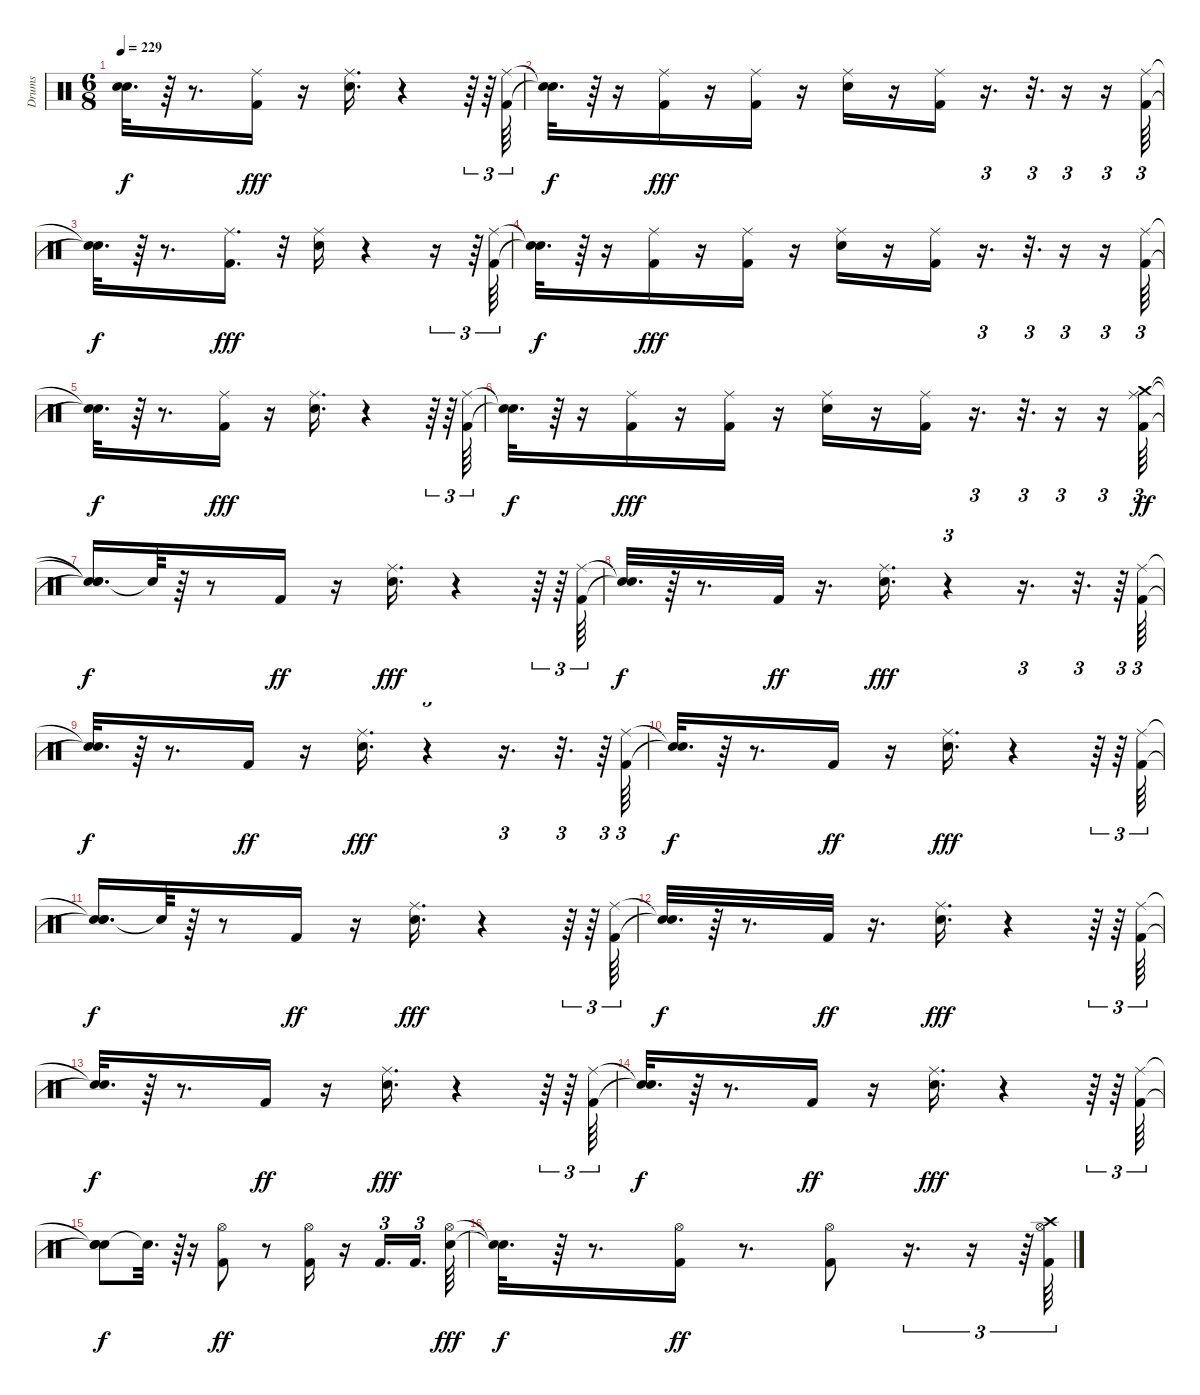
\track ("Drums" "Drums") {instrument percussion}
\staff {score}
\articulation defaults
\ts (6 8)
\tempo 229
\clef neutral
\ks c
("Snare (hit)"{t} "Snare (hit)"{t}).32{d dy f} r.64 r.8{d} ("Kick (hit) 2" "Ride (middle)").16{dy fff} r.16 ("Snare (hit) 2" "Ride (middle)").16{d} r.4 r.64{tu (3 2)} r.64{tu (3 2)} ("Kick (hit) 2" "Ride (middle)").64{tu (3 2)} |
("Snare (hit)"{t} "Snare (hit)"{t}).32{d dy f} r.64 r.16 ("Kick (hit) 2" "Ride (middle)").16{dy fff} r.16 ("Kick (hit) 2" "Ride (middle)").16 r.16 ("Snare (hit) 2" "Ride (middle)").16 r.16 ("Kick (hit) 2" "Ride (middle)").16 r.16{d tu (3 2)} r.32{d tu (3 2)} r.16{tu (3 2)} r.16{tu (3 2)} ("Kick (hit) 2" "Ride (middle)").64{tu (3 2)} |
("Snare (hit)"{t} "Snare (hit)"{t}).32{d dy f} r.64 r.8{d} ("Kick (hit) 2" "Ride (middle)").16{d dy fff} r.32 ("Snare (hit) 2" "Ride (middle)").16 r.4 r.16{tu (3 2)} r.64{tu (3 2)} ("Kick (hit) 2" "Ride (middle)").64{tu (3 2)} |
("Snare (hit)"{t} "Snare (hit)"{t}).32{d dy f} r.64 r.16 ("Kick (hit) 2" "Ride (middle)").16{dy fff} r.16 ("Kick (hit) 2" "Ride (middle)").16 r.16 ("Snare (hit) 2" "Ride (middle)").16 r.16 ("Kick (hit) 2" "Ride (middle)").16 r.16{d tu (3 2)} r.32{d tu (3 2)} r.16{tu (3 2)} r.16{tu (3 2)} ("Kick (hit) 2" "Ride (middle)").64{tu (3 2)} |
("Snare (hit)"{t} "Snare (hit)"{t}).32{d dy f} r.64 r.8{d} ("Kick (hit) 2" "Ride (middle)").16{dy fff} r.16 ("Snare (hit) 2" "Ride (middle)").16{d} r.4 r.64{tu (3 2)} r.64{tu (3 2)} ("Kick (hit) 2" "Ride (middle)").64{tu (3 2)} |
("Snare (hit)"{t} "Snare (hit)"{t}).32{d dy f} r.64 r.16 ("Kick (hit) 2" "Ride (middle)").16{dy fff} r.16 ("Kick (hit) 2" "Ride (middle)").16 r.16 ("Snare (hit) 2" "Ride (middle)").16 r.16 ("Kick (hit) 2" "Ride (middle)").16 r.16{d tu (3 2)} r.32{d tu (3 2)} r.16{tu (3 2)} r.16{tu (3 2)} ("Kick (hit) 2" "Ride (middle)" "Crash medium (hit)").64{tu (3 2) dy ff} |
("Snare (hit)"{t} "Snare (hit)"{t} "Snare (hit)"{t}).16{d dy f} "Snare (hit)"{t}.64 r.64 r.8 "Kick (hit) 2".16{dy ff} r.16 ("Snare (hit) 2" "Ride (middle)").16{d dy fff} r.4 r.64{tu (3 2)} r.64{tu (3 2)} ("Kick (hit) 2" "Ride (middle)").64{tu (3 2)} |
("Snare (hit)"{t} "Snare (hit)"{t}).32{d dy f} r.64 r.8{d} "Kick (hit) 2".32{dy ff} r.16{d} ("Snare (hit) 2" "Ride (middle)").16{d dy fff} r.4{tu (3 2)} r.16{d tu (3 2)} r.32{d tu (3 2)} r.64{tu (3 2)} ("Kick (hit) 2" "Ride (middle)").64{tu (3 2)} |
("Snare (hit)"{t} "Snare (hit)"{t}).32{d dy f} r.64 r.8{d} "Kick (hit) 2".16{dy ff} r.16 ("Snare (hit) 2" "Ride (middle)").16{d dy fff} r.4{tu (3 2)} r.16{d tu (3 2)} r.32{d tu (3 2)} r.64{tu (3 2)} ("Kick (hit) 2" "Ride (middle)").64{tu (3 2)} |
("Snare (hit)"{t} "Snare (hit)"{t}).32{d dy f} r.64 r.8{d} "Kick (hit) 2".16{dy ff} r.16 ("Snare (hit) 2" "Ride (middle)").16{d dy fff} r.4 r.64{tu (3 2)} r.64{tu (3 2)} ("Kick (hit) 2" "Ride (middle)").64{tu (3 2)} |
("Snare (hit)"{t} "Snare (hit)"{t} "Snare (hit)").16{d dy f} "Snare (hit)"{t}.64 r.64 r.8 "Kick (hit) 2".16{dy ff} r.16 ("Snare (hit) 2" "Ride (middle)").16{d dy fff} r.4 r.64{tu (3 2)} r.64{tu (3 2)} ("Kick (hit) 2" "Ride (middle)").64{tu (3 2)} |
("Snare (hit)"{t} "Snare (hit)"{t}).32{d dy f} r.64 r.8{d} "Kick (hit) 2".32{dy ff} r.16{d} ("Snare (hit) 2" "Ride (middle)").16{d dy fff} r.4 r.64{tu (3 2)} r.64{tu (3 2)} ("Kick (hit) 2" "Ride (middle)").64{tu (3 2)} |
("Snare (hit)"{t} "Snare (hit)"{t}).32{d dy f} r.64 r.8{d} "Kick (hit) 2".16{dy ff} r.16 ("Snare (hit) 2" "Ride (middle)").16{d dy fff} r.4 r.64{tu (3 2)} r.64{tu (3 2)} ("Kick (hit) 2" "Ride (middle)").64{tu (3 2)} |
("Snare (hit)"{t} "Snare (hit)"{t}).32{d dy f} r.64 r.8{d} "Kick (hit) 2".16{dy ff} r.16 ("Snare (hit) 2" "Ride (middle)").16{d dy fff} r.4 r.64{tu (3 2)} r.64{tu (3 2)} ("Kick (hit) 2" "Ride (middle)").64{tu (3 2)} |
("Snare (hit)"{t} "Snare (hit)"{t} "Snare (hit)").8{dy f} "Snare (hit)"{t}.32{d} r.64{tu (3 2)} r.16{tu (3 2)} ("Kick (hit) 2" "Hi-Hat (open)").8{dy ff} r.8 ("Kick (hit) 2" "Hi-Hat (open)").16 r.16 "Kick (hit) 2".16{d tu (3 2)} "Kick (hit) 2".16{d tu (3 2) beam splitsecondary} ("Snare (hit) 2" "Hi-Hat (open)").64{dy fff} |
("Snare (hit)"{t} "Snare (hit)"{t}).32{d dy f} r.64 r.8{d} ("Kick (hit) 2" "Hi-Hat (open)").16{dy ff} r.8{d} ("Kick (hit) 2" "Hi-Hat (open)").8 r.16{d tu (3 2)} r.16{tu (3 2)} r.64{tu (3 2)} ("Kick (hit) 2" "Hi-Hat (open)" "Crash high (hit)").64{tu (3 2)}
